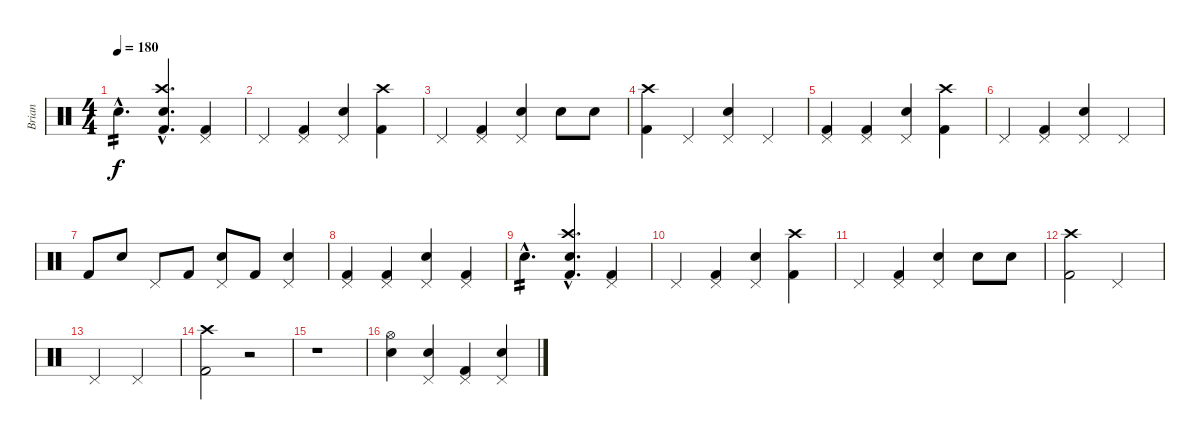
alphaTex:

\track ("Brian" "Brian") {instrument percussion}
\staff {score}
\articulation defaults
\ts (4 4)
\tempo 180
\clef neutral
\ks c "Snare (hit) 2"{hac}.4{d tp 2 dy f}
("Crash high (hit)"{hac} "Kick (hit) 2"{hac} "Snare (hit) 2"{hac}).4{d} ("Pedal Hi-Hat (hit)" "Kick (hit) 2").4 |
"Pedal Hi-Hat (hit)".4 ("Pedal Hi-Hat (hit)" "Kick (hit) 2").4 ("Pedal Hi-Hat (hit)" "Snare (hit) 2").4 ("Crash high (hit)" "Kick (hit) 2").4 |
"Pedal Hi-Hat (hit)".4 ("Pedal Hi-Hat (hit)" "Kick (hit) 2").4 ("Pedal Hi-Hat (hit)" "Snare (hit) 2").4 "Snare (hit) 2".8 "Snare (hit) 2".8 |
("Crash high (hit)" "Kick (hit) 2").4 "Pedal Hi-Hat (hit)".4 ("Pedal Hi-Hat (hit)" "Snare (hit) 2").4 "Pedal Hi-Hat (hit)".4 |
("Pedal Hi-Hat (hit)" "Kick (hit) 2").4 ("Pedal Hi-Hat (hit)" "Kick (hit) 2").4 ("Pedal Hi-Hat (hit)" "Snare (hit) 2").4 ("Crash high (hit)" "Kick (hit) 2").4 |
"Pedal Hi-Hat (hit)".4 ("Pedal Hi-Hat (hit)" "Kick (hit) 2").4 ("Pedal Hi-Hat (hit)" "Snare (hit) 2").4 "Pedal Hi-Hat (hit)".4 |
"Kick (hit) 2".8 "Snare (hit) 2".8 "Pedal Hi-Hat (hit)".8 "Kick (hit) 2".8 ("Pedal Hi-Hat (hit)" "Snare (hit) 2").8 "Kick (hit) 2".8 ("Pedal Hi-Hat (hit)" "Snare (hit) 2").4 |
("Pedal Hi-Hat (hit)" "Kick (hit) 2").4 ("Pedal Hi-Hat (hit)" "Kick (hit) 2").4 ("Pedal Hi-Hat (hit)" "Snare (hit) 2").4 ("Pedal Hi-Hat (hit)" "Kick (hit) 2").4 |
"Snare (hit) 2"{hac}.4{d tp 2} ("Crash high (hit)"{hac} "Kick (hit) 2"{hac} "Snare (hit) 2"{hac}).4{d} ("Pedal Hi-Hat (hit)" "Kick (hit) 2").4 |
"Pedal Hi-Hat (hit)".4 ("Pedal Hi-Hat (hit)" "Kick (hit) 2").4 ("Pedal Hi-Hat (hit)" "Snare (hit) 2").4 ("Crash high (hit)" "Kick (hit) 2").4 |
"Pedal Hi-Hat (hit)".4 ("Pedal Hi-Hat (hit)" "Kick (hit) 2").4 ("Pedal Hi-Hat (hit)" "Snare (hit) 2").4 "Snare (hit) 2".8 "Snare (hit) 2".8 |
("Crash high (hit)" "Kick (hit) 2").2 "Pedal Hi-Hat (hit)".2 |
"Pedal Hi-Hat (hit)".2 "Pedal Hi-Hat (hit)".2 |
("Crash high (hit)" "Kick (hit) 2").2 r.2 |
r.1 |
("Hi-Hat (open)" "Snare (hit) 2").4 ("Pedal Hi-Hat (hit)" "Snare (hit) 2").4 ("Pedal Hi-Hat (hit)" "Kick (hit) 2").4 ("Pedal Hi-Hat (hit)" "Snare (hit) 2").4
